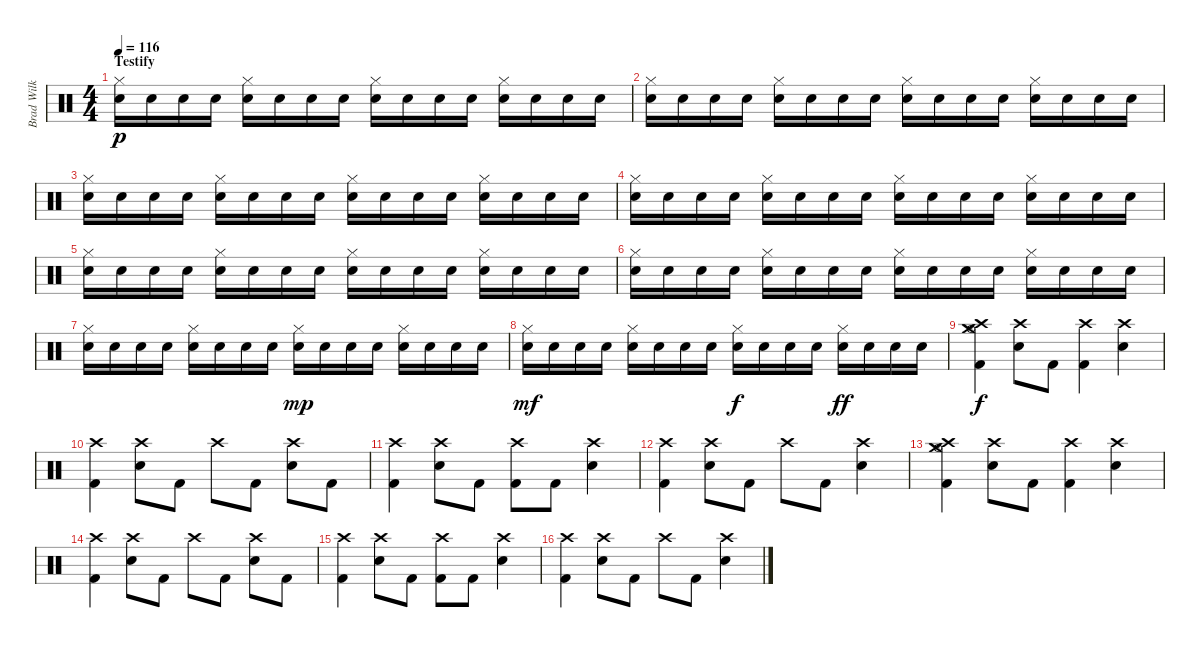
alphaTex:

\track ("Brad Wilk" "Brad Wilk") {instrument percussion}
\staff {score}
\articulation defaults
\ts (4 4)
\section ("" "Testify")
\tempo 116
\clef neutral
\ks c
("Snare (hit) 2" "Hi-Hat (closed)").16{dy p} "Snare (hit) 2".16 "Snare (hit) 2".16 "Snare (hit) 2".16 ("Snare (hit) 2" "Hi-Hat (closed)").16 "Snare (hit) 2".16 "Snare (hit) 2".16 "Snare (hit) 2".16 ("Snare (hit) 2" "Hi-Hat (closed)").16 "Snare (hit) 2".16 "Snare (hit) 2".16 "Snare (hit) 2".16 ("Snare (hit) 2" "Hi-Hat (closed)").16 "Snare (hit) 2".16 "Snare (hit) 2".16 "Snare (hit) 2".16 |
("Snare (hit) 2" "Hi-Hat (closed)").16 "Snare (hit) 2".16 "Snare (hit) 2".16 "Snare (hit) 2".16 ("Snare (hit) 2" "Hi-Hat (closed)").16 "Snare (hit) 2".16 "Snare (hit) 2".16 "Snare (hit) 2".16 ("Snare (hit) 2" "Hi-Hat (closed)").16 "Snare (hit) 2".16 "Snare (hit) 2".16 "Snare (hit) 2".16 ("Snare (hit) 2" "Hi-Hat (closed)").16 "Snare (hit) 2".16 "Snare (hit) 2".16 "Snare (hit) 2".16 |
("Snare (hit) 2" "Hi-Hat (closed)").16 "Snare (hit) 2".16 "Snare (hit) 2".16 "Snare (hit) 2".16 ("Snare (hit) 2" "Hi-Hat (closed)").16 "Snare (hit) 2".16 "Snare (hit) 2".16 "Snare (hit) 2".16 ("Snare (hit) 2" "Hi-Hat (closed)").16 "Snare (hit) 2".16 "Snare (hit) 2".16 "Snare (hit) 2".16 ("Snare (hit) 2" "Hi-Hat (closed)").16 "Snare (hit) 2".16 "Snare (hit) 2".16 "Snare (hit) 2".16 |
("Snare (hit) 2" "Hi-Hat (closed)").16 "Snare (hit) 2".16 "Snare (hit) 2".16 "Snare (hit) 2".16 ("Snare (hit) 2" "Hi-Hat (closed)").16 "Snare (hit) 2".16 "Snare (hit) 2".16 "Snare (hit) 2".16 ("Snare (hit) 2" "Hi-Hat (closed)").16 "Snare (hit) 2".16 "Snare (hit) 2".16 "Snare (hit) 2".16 ("Snare (hit) 2" "Hi-Hat (closed)").16 "Snare (hit) 2".16 "Snare (hit) 2".16 "Snare (hit) 2".16 |
("Snare (hit) 2" "Hi-Hat (closed)").16 "Snare (hit) 2".16 "Snare (hit) 2".16 "Snare (hit) 2".16 ("Snare (hit) 2" "Hi-Hat (closed)").16 "Snare (hit) 2".16 "Snare (hit) 2".16 "Snare (hit) 2".16 ("Snare (hit) 2" "Hi-Hat (closed)").16 "Snare (hit) 2".16 "Snare (hit) 2".16 "Snare (hit) 2".16 ("Snare (hit) 2" "Hi-Hat (closed)").16 "Snare (hit) 2".16 "Snare (hit) 2".16 "Snare (hit) 2".16 |
("Snare (hit) 2" "Hi-Hat (closed)").16 "Snare (hit) 2".16 "Snare (hit) 2".16 "Snare (hit) 2".16 ("Snare (hit) 2" "Hi-Hat (closed)").16 "Snare (hit) 2".16 "Snare (hit) 2".16 "Snare (hit) 2".16 ("Snare (hit) 2" "Hi-Hat (closed)").16 "Snare (hit) 2".16 "Snare (hit) 2".16 "Snare (hit) 2".16 ("Snare (hit) 2" "Hi-Hat (closed)").16 "Snare (hit) 2".16 "Snare (hit) 2".16 "Snare (hit) 2".16 |
("Snare (hit) 2" "Hi-Hat (closed)").16 "Snare (hit) 2".16 "Snare (hit) 2".16 "Snare (hit) 2".16 ("Snare (hit) 2" "Hi-Hat (closed)").16 "Snare (hit) 2".16 "Snare (hit) 2".16 "Snare (hit) 2".16 ("Snare (hit) 2" "Hi-Hat (closed)").16{dy mp} "Snare (hit) 2".16 "Snare (hit) 2".16 "Snare (hit) 2".16 ("Snare (hit) 2" "Hi-Hat (closed)").16 "Snare (hit) 2".16 "Snare (hit) 2".16 "Snare (hit) 2".16 |
("Snare (hit) 2" "Hi-Hat (closed)").16{dy mf} "Snare (hit) 2".16 "Snare (hit) 2".16 "Snare (hit) 2".16 ("Snare (hit) 2" "Hi-Hat (closed)").16 "Snare (hit) 2".16 "Snare (hit) 2".16 "Snare (hit) 2".16 ("Snare (hit) 2" "Hi-Hat (closed)").16{dy f} "Snare (hit) 2".16 "Snare (hit) 2".16 "Snare (hit) 2".16 ("Snare (hit) 2" "Hi-Hat (closed)").16{dy ff} "Snare (hit) 2".16 "Snare (hit) 2".16 "Snare (hit) 2".16 |
("Crash high (hit)" "Kick (hit) 2" "Crash medium (hit)" "Hi-Hat (open)").4{dy f} ("Crash high (hit)" "Snare (hit) 2").8 "Kick (hit) 2".8 ("Crash high (hit)" "Kick (hit) 2").4 ("Crash high (hit)" "Snare (hit) 2").4 |
("Crash high (hit)" "Kick (hit) 2").4 ("Crash high (hit)" "Snare (hit) 2").8 "Kick (hit) 2".8 "Crash high (hit)".8 "Kick (hit) 2".8 ("Crash high (hit)" "Snare (hit) 2").8 "Kick (hit) 2".8 |
("Crash high (hit)" "Kick (hit) 2").4 ("Crash high (hit)" "Snare (hit) 2").8 "Kick (hit) 2".8 ("Crash high (hit)" "Kick (hit) 2").8 "Kick (hit) 2".8 ("Crash high (hit)" "Snare (hit) 2").4 |
("Crash high (hit)" "Kick (hit) 2").4 ("Crash high (hit)" "Snare (hit) 2").8 "Kick (hit) 2".8 "Crash high (hit)".8 "Kick (hit) 2".8 ("Crash high (hit)" "Snare (hit) 2").4 |
("Crash high (hit)" "Kick (hit) 2" "Crash medium (hit)" "Hi-Hat (open)").4 ("Crash high (hit)" "Snare (hit) 2").8 "Kick (hit) 2".8 ("Crash high (hit)" "Kick (hit) 2").4 ("Crash high (hit)" "Snare (hit) 2").4 |
("Crash high (hit)" "Kick (hit) 2").4 ("Crash high (hit)" "Snare (hit) 2").8 "Kick (hit) 2".8 "Crash high (hit)".8 "Kick (hit) 2".8 ("Crash high (hit)" "Snare (hit) 2").8 "Kick (hit) 2".8 |
("Crash high (hit)" "Kick (hit) 2").4 ("Crash high (hit)" "Snare (hit) 2").8 "Kick (hit) 2".8 ("Crash high (hit)" "Kick (hit) 2").8 "Kick (hit) 2".8 ("Crash high (hit)" "Snare (hit) 2").4 |
("Crash high (hit)" "Kick (hit) 2").4 ("Crash high (hit)" "Snare (hit) 2").8 "Kick (hit) 2".8 "Crash high (hit)".8 "Kick (hit) 2".8 ("Crash high (hit)" "Snare (hit) 2").4
